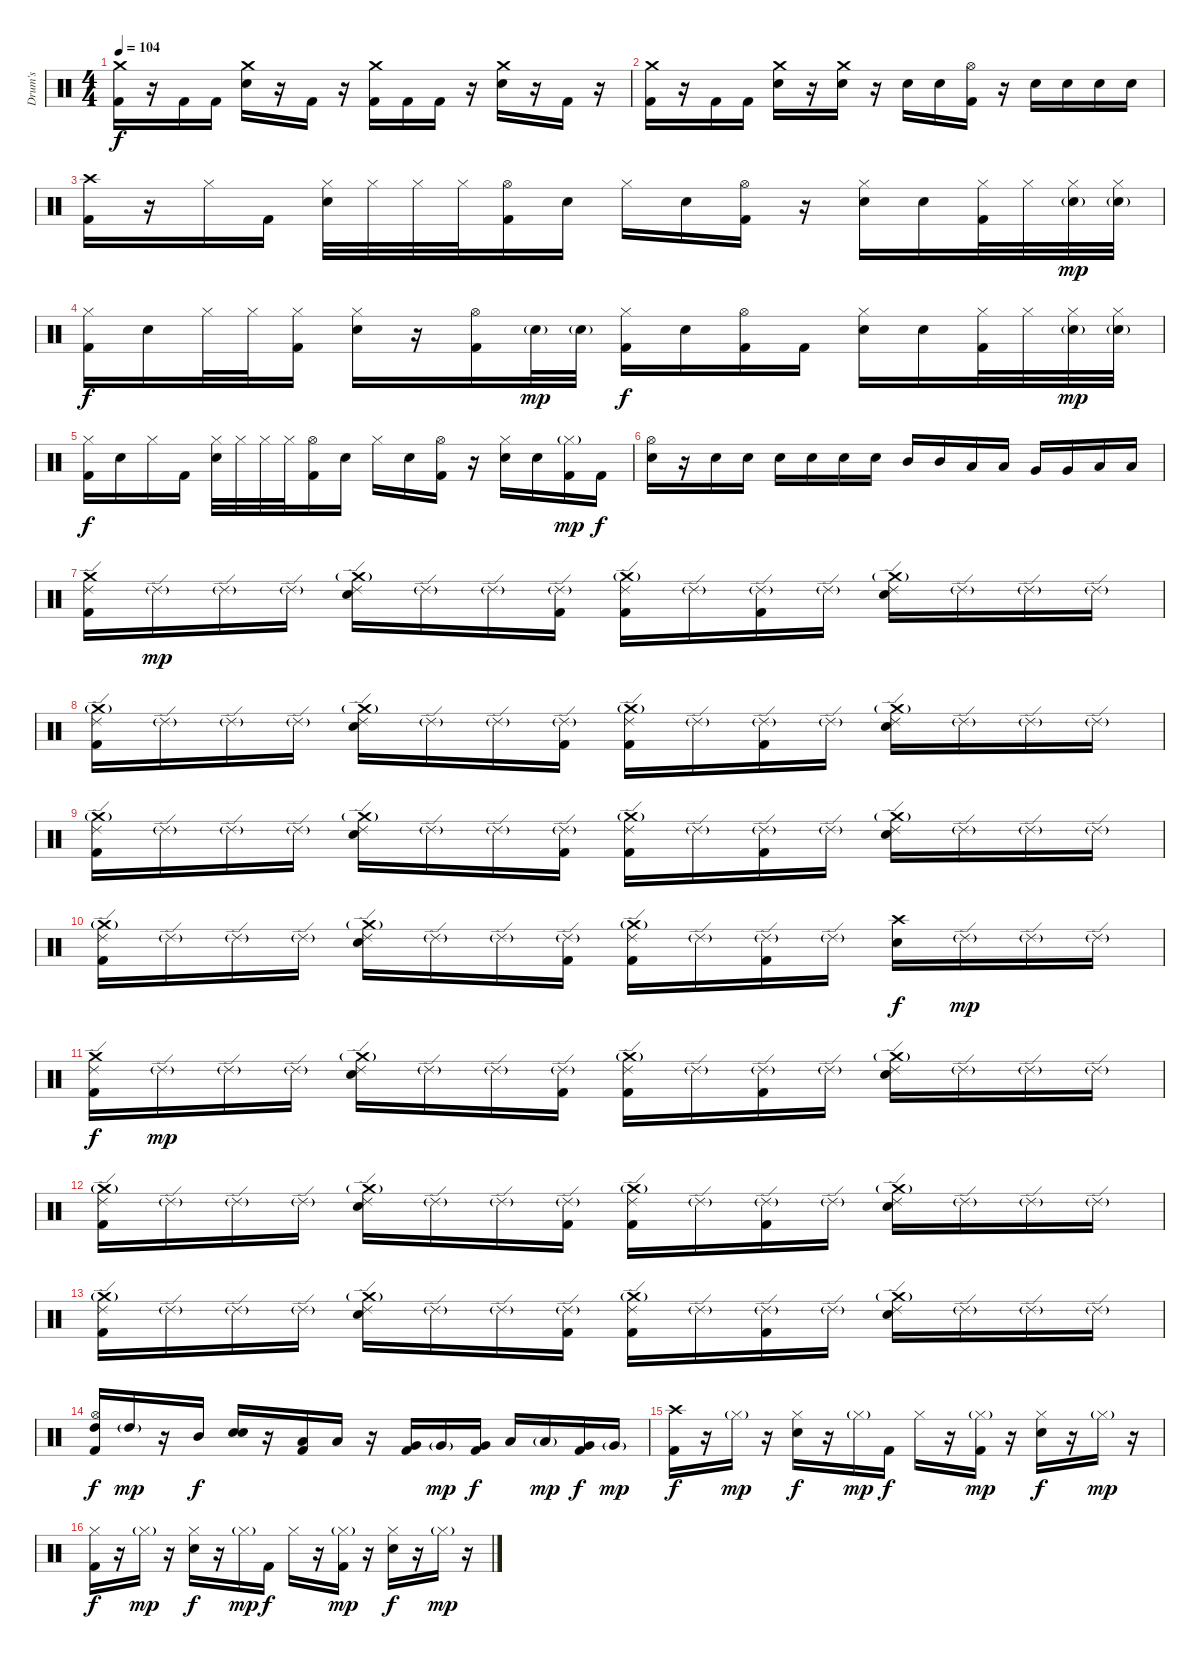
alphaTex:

\track ("Drum's" "Drum's") {instrument percussion}
\staff {score}
\articulation defaults
\ts (4 4)
\tempo 104
\clef neutral
\ks c
("Crash medium (hit)" "Kick (hit) 2").16{dy f} r.16 "Kick (hit) 2".16 "Kick (hit) 2".16 ("Crash medium (hit)" "Snare (hit) 2").16 r.16 "Kick (hit) 2".16 r.16 ("Crash medium (hit)" "Kick (hit) 2").16 "Kick (hit) 2".16 "Kick (hit) 2".16 r.16 ("Crash medium (hit)" "Snare (hit) 2").16 r.16 "Kick (hit) 2".16 r.16 |
("Crash medium (hit)" "Kick (hit) 2").16 r.16 "Kick (hit) 2".16 "Kick (hit) 2".16 ("Crash medium (hit)" "Snare (hit) 2").16 r.16 ("Crash medium (hit)" "Snare (hit) 2").16 r.16 "Snare (hit) 2".16 "Snare (hit) 2".16 ("Hi-Hat (open)" "Kick (hit) 2").16 r.16 "Snare (hit) 2".16 "Snare (hit) 2".16 "Snare (hit) 2".16 "Snare (hit) 2".16 |
("Crash high (hit)" "Kick (hit) 2").16 r.16 "Hi-Hat (closed)".16{volume 9} "Kick (hit) 2".16 ("Hi-Hat (closed)" "Snare (hit) 2").32 "Hi-Hat (closed)".32 "Hi-Hat (closed)".32 "Hi-Hat (closed)".32 ("Hi-Hat (open)" "Kick (hit) 2").16 "Snare (hit) 2".16 "Hi-Hat (closed)".16 "Snare (hit) 2".16 ("Hi-Hat (open)" "Kick (hit) 2").16 r.16 ("Hi-Hat (closed)" "Snare (hit) 2").16 "Snare (hit) 2".16 ("Hi-Hat (closed)" "Kick (hit) 2").32 "Hi-Hat (closed)".32 ("Hi-Hat (closed)" "Snare (hit) 2"{g}).32{dy mp} ("Hi-Hat (closed)" "Snare (hit) 2"{g}).32 |
("Hi-Hat (closed)" "Kick (hit) 2").16{dy f} "Snare (hit) 2".16 "Hi-Hat (closed)".32 "Hi-Hat (closed)".32 ("Hi-Hat (closed)" "Kick (hit) 2").16 ("Hi-Hat (closed)" "Snare (hit) 2").16 r.16 ("Hi-Hat (open)" "Kick (hit) 2").16 "Snare (hit) 2"{g}.32{dy mp} "Snare (hit) 2"{g}.32 ("Hi-Hat (closed)" "Kick (hit) 2").16{dy f} "Snare (hit) 2".16 ("Hi-Hat (open)" "Kick (hit) 2").16 "Kick (hit) 2".16 ("Hi-Hat (closed)" "Snare (hit) 2").16 "Snare (hit) 2".16 ("Hi-Hat (closed)" "Kick (hit) 2").32 "Hi-Hat (closed)".32 ("Hi-Hat (closed)" "Snare (hit) 2"{g}).32{dy mp} ("Hi-Hat (closed)" "Snare (hit) 2"{g}).32 |
("Hi-Hat (closed)" "Kick (hit) 2").16{dy f} "Snare (hit) 2".16 "Hi-Hat (closed)".16 "Kick (hit) 2".16 ("Hi-Hat (closed)" "Snare (hit) 2").32 "Hi-Hat (closed)".32 "Hi-Hat (closed)".32 "Hi-Hat (closed)".32 ("Hi-Hat (open)" "Kick (hit) 2").16 "Snare (hit) 2".16 "Hi-Hat (closed)".16 "Snare (hit) 2".16 ("Hi-Hat (open)" "Kick (hit) 2").16 r.16 ("Hi-Hat (closed)" "Snare (hit) 2").16 "Snare (hit) 2".16 ("Hi-Hat (closed)"{g} "Kick (hit) 2").16{dy mp volume 13} "Kick (hit) 2".16{dy f} |
("Hi-Hat (open)" "Snare (hit) 2").16 r.16 "Snare (hit) 2".16 "Snare (hit) 2".16 "Snare (hit) 2".16 "Snare (hit) 2".16 "Snare (hit) 2".16 "Snare (hit) 2".16 "Mid Tom (hit)".16 "Mid Tom (hit)".16 "Low Tom (hit)".16 "Low Tom (hit)".16 "Very Low Tom (hit)".16 "Very Low Tom (hit)".16 "Low Floor Tom (hit)".16 "Low Floor Tom (hit)".16 |
("Crash medium (hit)" "Ride (edge) 2" "Kick (hit) 2").16 "Ride (edge) 2"{g}.16{dy mp} "Ride (edge) 2"{g}.16 "Ride (edge) 2"{g}.16 ("Crash medium (hit)"{g} "Ride (edge) 2" "Snare (hit) 2").16 "Ride (edge) 2"{g}.16 "Ride (edge) 2"{g}.16 ("Ride (edge) 2"{g} "Kick (hit) 2").16 ("Crash medium (hit)"{g} "Ride (edge) 2" "Kick (hit) 2").16 "Ride (edge) 2"{g}.16 ("Ride (edge) 2"{g} "Kick (hit) 2").16 "Ride (edge) 2"{g}.16 ("Crash medium (hit)"{g} "Ride (edge) 2" "Snare (hit) 2").16 "Ride (edge) 2"{g}.16 "Ride (edge) 2"{g}.16 "Ride (edge) 2"{g}.16 |
("Crash medium (hit)"{g} "Ride (edge) 2" "Kick (hit) 2").16 "Ride (edge) 2"{g}.16 "Ride (edge) 2"{g}.16 "Ride (edge) 2"{g}.16 ("Crash medium (hit)"{g} "Ride (edge) 2" "Snare (hit) 2").16 "Ride (edge) 2"{g}.16 "Ride (edge) 2"{g}.16 ("Ride (edge) 2"{g} "Kick (hit) 2").16 ("Crash medium (hit)"{g} "Ride (edge) 2" "Kick (hit) 2").16 "Ride (edge) 2"{g}.16 ("Ride (edge) 2"{g} "Kick (hit) 2").16 "Ride (edge) 2"{g}.16 ("Crash medium (hit)"{g} "Ride (edge) 2" "Snare (hit) 2").16 "Ride (edge) 2"{g}.16 "Ride (edge) 2"{g}.16 "Ride (edge) 2"{g}.16 |
("Crash medium (hit)"{g} "Ride (edge) 2" "Kick (hit) 2").16 "Ride (edge) 2"{g}.16 "Ride (edge) 2"{g}.16 "Ride (edge) 2"{g}.16 ("Crash medium (hit)"{g} "Ride (edge) 2" "Snare (hit) 2").16 "Ride (edge) 2"{g}.16 "Ride (edge) 2"{g}.16 ("Ride (edge) 2"{g} "Kick (hit) 2").16 ("Crash medium (hit)"{g} "Ride (edge) 2" "Kick (hit) 2").16 "Ride (edge) 2"{g}.16 ("Ride (edge) 2"{g} "Kick (hit) 2").16 "Ride (edge) 2"{g}.16 ("Crash medium (hit)"{g} "Ride (edge) 2" "Snare (hit) 2").16 "Ride (edge) 2"{g}.16 "Ride (edge) 2"{g}.16 "Ride (edge) 2"{g}.16 |
("Crash medium (hit)"{g} "Ride (edge) 2" "Kick (hit) 2").16 "Ride (edge) 2"{g}.16 "Ride (edge) 2"{g}.16 "Ride (edge) 2"{g}.16 ("Crash medium (hit)"{g} "Ride (edge) 2" "Snare (hit) 2").16 "Ride (edge) 2"{g}.16 "Ride (edge) 2"{g}.16 ("Ride (edge) 2"{g} "Kick (hit) 2").16 ("Crash medium (hit)"{g} "Ride (edge) 2" "Kick (hit) 2").16 "Ride (edge) 2"{g}.16 ("Ride (edge) 2"{g} "Kick (hit) 2").16 "Ride (edge) 2"{g}.16 ("Crash high (hit)" "Snare (hit) 2").16{dy f} "Ride (edge) 2"{g}.16{dy mp} "Ride (edge) 2"{g}.16 "Ride (edge) 2"{g}.16 |
("Crash medium (hit)" "Ride (edge) 2" "Kick (hit) 2").16{dy f} "Ride (edge) 2"{g}.16{dy mp} "Ride (edge) 2"{g}.16 "Ride (edge) 2"{g}.16 ("Crash medium (hit)"{g} "Ride (edge) 2" "Snare (hit) 2").16 "Ride (edge) 2"{g}.16 "Ride (edge) 2"{g}.16 ("Ride (edge) 2"{g} "Kick (hit) 2").16 ("Crash medium (hit)"{g} "Ride (edge) 2" "Kick (hit) 2").16 "Ride (edge) 2"{g}.16 ("Ride (edge) 2"{g} "Kick (hit) 2").16 "Ride (edge) 2"{g}.16 ("Crash medium (hit)"{g} "Ride (edge) 2" "Snare (hit) 2").16 "Ride (edge) 2"{g}.16 "Ride (edge) 2"{g}.16 "Ride (edge) 2"{g}.16 |
("Crash medium (hit)"{g} "Ride (edge) 2" "Kick (hit) 2").16 "Ride (edge) 2"{g}.16 "Ride (edge) 2"{g}.16 "Ride (edge) 2"{g}.16 ("Crash medium (hit)"{g} "Ride (edge) 2" "Snare (hit) 2").16 "Ride (edge) 2"{g}.16 "Ride (edge) 2"{g}.16 ("Ride (edge) 2"{g} "Kick (hit) 2").16 ("Crash medium (hit)"{g} "Ride (edge) 2" "Kick (hit) 2").16 "Ride (edge) 2"{g}.16 ("Ride (edge) 2"{g} "Kick (hit) 2").16 "Ride (edge) 2"{g}.16 ("Crash medium (hit)"{g} "Ride (edge) 2" "Snare (hit) 2").16 "Ride (edge) 2"{g}.16 "Ride (edge) 2"{g}.16 "Ride (edge) 2"{g}.16 |
("Crash medium (hit)"{g} "Ride (edge) 2" "Kick (hit) 2").16 "Ride (edge) 2"{g}.16 "Ride (edge) 2"{g}.16 "Ride (edge) 2"{g}.16 ("Crash medium (hit)"{g} "Ride (edge) 2" "Snare (hit) 2").16 "Ride (edge) 2"{g}.16 "Ride (edge) 2"{g}.16 ("Ride (edge) 2"{g} "Kick (hit) 2").16 ("Crash medium (hit)"{g} "Ride (edge) 2" "Kick (hit) 2").16 "Ride (edge) 2"{g}.16 ("Ride (edge) 2"{g} "Kick (hit) 2").16 "Ride (edge) 2"{g}.16 ("Crash medium (hit)"{g} "Ride (edge) 2" "Snare (hit) 2").16 "Ride (edge) 2"{g}.16 "Ride (edge) 2"{g}.16 "Ride (edge) 2"{g}.16 |
("Hi-Hat (open)" "High Tom (hit)" "Kick (hit) 2").16{dy f} "High Tom (hit)"{g}.16{dy mp} r.16 "Mid Tom (hit)".16{dy f} ("Electric Snare (hit)" "Snare (hit) 2").16 r.16 ("Low Tom (hit)" "Kick (hit) 2").16 "Low Tom (hit)".16 r.16 ("Very Low Tom (hit)" "Kick (hit) 2").16 "Very Low Tom (hit)"{g}.16{dy mp} ("Very Low Tom (hit)" "Kick (hit) 2").16{dy f} "Low Tom (hit)".16 "Low Tom (hit)"{g}.16{dy mp} ("Very Low Tom (hit)" "Kick (hit) 2").16{dy f} "Very Low Tom (hit)"{g}.16{dy mp} |
("Crash high (hit)" "Kick (hit) 2").16{dy f} r.16 "Hi-Hat (closed)"{g}.16{dy mp} r.16 ("Hi-Hat (closed)" "Snare (hit) 2").16{dy f} r.16 "Hi-Hat (closed)"{g}.16{dy mp} "Kick (hit) 2".16{dy f} "Hi-Hat (closed)".16 r.16 ("Hi-Hat (closed)"{g} "Kick (hit) 2").16{dy mp} r.16 ("Hi-Hat (closed)" "Snare (hit) 2").16{dy f} r.16 "Hi-Hat (closed)"{g}.16{dy mp} r.16 |
("Hi-Hat (closed)" "Kick (hit) 2").16{dy f} r.16 "Hi-Hat (closed)"{g}.16{dy mp} r.16 ("Hi-Hat (closed)" "Snare (hit) 2").16{dy f} r.16 "Hi-Hat (closed)"{g}.16{dy mp} "Kick (hit) 2".16{dy f} "Hi-Hat (closed)".16 r.16 ("Hi-Hat (closed)"{g} "Kick (hit) 2").16{dy mp} r.16 ("Hi-Hat (closed)" "Snare (hit) 2").16{dy f} r.16 "Hi-Hat (closed)"{g}.16{dy mp} r.16
